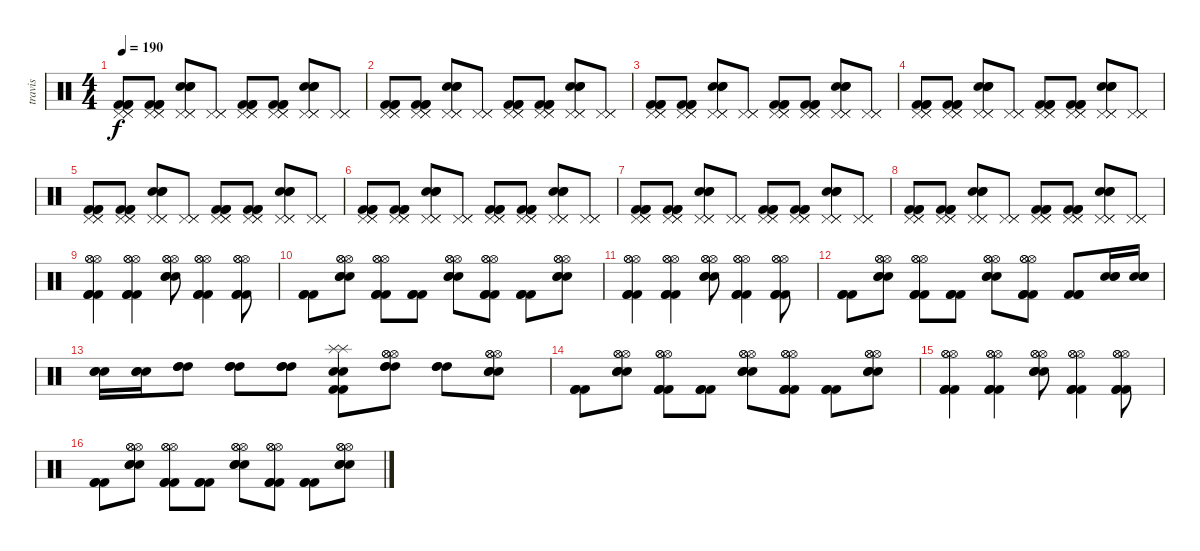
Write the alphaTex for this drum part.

\track ("travis" "travis") {instrument percussion}
\staff {score}
\articulation defaults
\ts (4 4)
\tempo 190
\clef neutral
\ks c
("Kick (hit) 2" "Kick (hit) 2" "Kick (hit) 2" "Pedal Hi-Hat (hit)" "Pedal Hi-Hat (hit)" "Pedal Hi-Hat (hit)").8{dy f} ("Kick (hit) 2" "Kick (hit) 2" "Kick (hit) 2" "Pedal Hi-Hat (hit)" "Pedal Hi-Hat (hit)" "Pedal Hi-Hat (hit)").8 ("Snare (hit) 2" "Snare (hit) 2" "Snare (hit) 2" "Pedal Hi-Hat (hit)" "Pedal Hi-Hat (hit)" "Pedal Hi-Hat (hit)").8 ("Pedal Hi-Hat (hit)" "Pedal Hi-Hat (hit)" "Pedal Hi-Hat (hit)").8 ("Kick (hit) 2" "Kick (hit) 2" "Kick (hit) 2" "Pedal Hi-Hat (hit)" "Pedal Hi-Hat (hit)" "Pedal Hi-Hat (hit)").8 ("Kick (hit) 2" "Kick (hit) 2" "Kick (hit) 2" "Pedal Hi-Hat (hit)" "Pedal Hi-Hat (hit)" "Pedal Hi-Hat (hit)").8 ("Snare (hit) 2" "Snare (hit) 2" "Snare (hit) 2" "Pedal Hi-Hat (hit)" "Pedal Hi-Hat (hit)" "Pedal Hi-Hat (hit)").8 ("Pedal Hi-Hat (hit)" "Pedal Hi-Hat (hit)" "Pedal Hi-Hat (hit)").8 |
("Kick (hit) 2" "Kick (hit) 2" "Kick (hit) 2" "Pedal Hi-Hat (hit)" "Pedal Hi-Hat (hit)" "Pedal Hi-Hat (hit)").8 ("Kick (hit) 2" "Kick (hit) 2" "Kick (hit) 2" "Pedal Hi-Hat (hit)" "Pedal Hi-Hat (hit)" "Pedal Hi-Hat (hit)").8 ("Snare (hit) 2" "Snare (hit) 2" "Snare (hit) 2" "Pedal Hi-Hat (hit)" "Pedal Hi-Hat (hit)" "Pedal Hi-Hat (hit)").8 ("Pedal Hi-Hat (hit)" "Pedal Hi-Hat (hit)" "Pedal Hi-Hat (hit)").8 ("Kick (hit) 2" "Kick (hit) 2" "Kick (hit) 2" "Pedal Hi-Hat (hit)" "Pedal Hi-Hat (hit)" "Pedal Hi-Hat (hit)").8 ("Kick (hit) 2" "Kick (hit) 2" "Kick (hit) 2" "Pedal Hi-Hat (hit)" "Pedal Hi-Hat (hit)" "Pedal Hi-Hat (hit)").8 ("Snare (hit) 2" "Snare (hit) 2" "Snare (hit) 2" "Pedal Hi-Hat (hit)" "Pedal Hi-Hat (hit)" "Pedal Hi-Hat (hit)").8 ("Pedal Hi-Hat (hit)" "Pedal Hi-Hat (hit)" "Pedal Hi-Hat (hit)").8 |
("Kick (hit) 2" "Kick (hit) 2" "Kick (hit) 2" "Pedal Hi-Hat (hit)" "Pedal Hi-Hat (hit)" "Pedal Hi-Hat (hit)").8 ("Kick (hit) 2" "Kick (hit) 2" "Kick (hit) 2" "Pedal Hi-Hat (hit)" "Pedal Hi-Hat (hit)" "Pedal Hi-Hat (hit)").8 ("Snare (hit) 2" "Snare (hit) 2" "Snare (hit) 2" "Pedal Hi-Hat (hit)" "Pedal Hi-Hat (hit)" "Pedal Hi-Hat (hit)").8 ("Pedal Hi-Hat (hit)" "Pedal Hi-Hat (hit)" "Pedal Hi-Hat (hit)").8 ("Kick (hit) 2" "Kick (hit) 2" "Kick (hit) 2" "Pedal Hi-Hat (hit)" "Pedal Hi-Hat (hit)" "Pedal Hi-Hat (hit)").8 ("Kick (hit) 2" "Kick (hit) 2" "Kick (hit) 2" "Pedal Hi-Hat (hit)" "Pedal Hi-Hat (hit)" "Pedal Hi-Hat (hit)").8 ("Snare (hit) 2" "Snare (hit) 2" "Snare (hit) 2" "Pedal Hi-Hat (hit)" "Pedal Hi-Hat (hit)" "Pedal Hi-Hat (hit)").8 ("Pedal Hi-Hat (hit)" "Pedal Hi-Hat (hit)" "Pedal Hi-Hat (hit)").8 |
("Kick (hit) 2" "Kick (hit) 2" "Kick (hit) 2" "Pedal Hi-Hat (hit)" "Pedal Hi-Hat (hit)" "Pedal Hi-Hat (hit)").8 ("Kick (hit) 2" "Kick (hit) 2" "Kick (hit) 2" "Pedal Hi-Hat (hit)" "Pedal Hi-Hat (hit)" "Pedal Hi-Hat (hit)").8 ("Snare (hit) 2" "Snare (hit) 2" "Snare (hit) 2" "Pedal Hi-Hat (hit)" "Pedal Hi-Hat (hit)" "Pedal Hi-Hat (hit)").8 ("Pedal Hi-Hat (hit)" "Pedal Hi-Hat (hit)" "Pedal Hi-Hat (hit)").8 ("Kick (hit) 2" "Kick (hit) 2" "Kick (hit) 2" "Pedal Hi-Hat (hit)" "Pedal Hi-Hat (hit)" "Pedal Hi-Hat (hit)").8 ("Kick (hit) 2" "Kick (hit) 2" "Kick (hit) 2" "Pedal Hi-Hat (hit)" "Pedal Hi-Hat (hit)" "Pedal Hi-Hat (hit)").8 ("Snare (hit) 2" "Snare (hit) 2" "Snare (hit) 2" "Pedal Hi-Hat (hit)" "Pedal Hi-Hat (hit)" "Pedal Hi-Hat (hit)").8 ("Pedal Hi-Hat (hit)" "Pedal Hi-Hat (hit)" "Pedal Hi-Hat (hit)").8 |
("Kick (hit) 2" "Kick (hit) 2" "Kick (hit) 2" "Pedal Hi-Hat (hit)" "Pedal Hi-Hat (hit)" "Pedal Hi-Hat (hit)").8 ("Kick (hit) 2" "Kick (hit) 2" "Kick (hit) 2" "Pedal Hi-Hat (hit)" "Pedal Hi-Hat (hit)" "Pedal Hi-Hat (hit)").8 ("Snare (hit) 2" "Snare (hit) 2" "Snare (hit) 2" "Pedal Hi-Hat (hit)" "Pedal Hi-Hat (hit)" "Pedal Hi-Hat (hit)").8 ("Pedal Hi-Hat (hit)" "Pedal Hi-Hat (hit)" "Pedal Hi-Hat (hit)").8 ("Kick (hit) 2" "Kick (hit) 2" "Kick (hit) 2" "Pedal Hi-Hat (hit)" "Pedal Hi-Hat (hit)" "Pedal Hi-Hat (hit)").8 ("Kick (hit) 2" "Kick (hit) 2" "Kick (hit) 2" "Pedal Hi-Hat (hit)" "Pedal Hi-Hat (hit)" "Pedal Hi-Hat (hit)").8 ("Snare (hit) 2" "Snare (hit) 2" "Snare (hit) 2" "Pedal Hi-Hat (hit)" "Pedal Hi-Hat (hit)" "Pedal Hi-Hat (hit)").8 ("Pedal Hi-Hat (hit)" "Pedal Hi-Hat (hit)" "Pedal Hi-Hat (hit)").8 |
("Kick (hit) 2" "Kick (hit) 2" "Kick (hit) 2" "Pedal Hi-Hat (hit)" "Pedal Hi-Hat (hit)" "Pedal Hi-Hat (hit)").8 ("Kick (hit) 2" "Kick (hit) 2" "Kick (hit) 2" "Pedal Hi-Hat (hit)" "Pedal Hi-Hat (hit)" "Pedal Hi-Hat (hit)").8 ("Snare (hit) 2" "Snare (hit) 2" "Snare (hit) 2" "Pedal Hi-Hat (hit)" "Pedal Hi-Hat (hit)" "Pedal Hi-Hat (hit)").8 ("Pedal Hi-Hat (hit)" "Pedal Hi-Hat (hit)" "Pedal Hi-Hat (hit)").8 ("Kick (hit) 2" "Kick (hit) 2" "Kick (hit) 2" "Pedal Hi-Hat (hit)" "Pedal Hi-Hat (hit)" "Pedal Hi-Hat (hit)").8 ("Kick (hit) 2" "Kick (hit) 2" "Kick (hit) 2" "Pedal Hi-Hat (hit)" "Pedal Hi-Hat (hit)" "Pedal Hi-Hat (hit)").8 ("Snare (hit) 2" "Snare (hit) 2" "Snare (hit) 2" "Pedal Hi-Hat (hit)" "Pedal Hi-Hat (hit)" "Pedal Hi-Hat (hit)").8 ("Pedal Hi-Hat (hit)" "Pedal Hi-Hat (hit)" "Pedal Hi-Hat (hit)").8 |
("Kick (hit) 2" "Kick (hit) 2" "Kick (hit) 2" "Pedal Hi-Hat (hit)" "Pedal Hi-Hat (hit)" "Pedal Hi-Hat (hit)").8 ("Kick (hit) 2" "Kick (hit) 2" "Kick (hit) 2" "Pedal Hi-Hat (hit)" "Pedal Hi-Hat (hit)" "Pedal Hi-Hat (hit)").8 ("Snare (hit) 2" "Snare (hit) 2" "Snare (hit) 2" "Pedal Hi-Hat (hit)" "Pedal Hi-Hat (hit)" "Pedal Hi-Hat (hit)").8 ("Pedal Hi-Hat (hit)" "Pedal Hi-Hat (hit)" "Pedal Hi-Hat (hit)").8 ("Kick (hit) 2" "Kick (hit) 2" "Kick (hit) 2" "Pedal Hi-Hat (hit)" "Pedal Hi-Hat (hit)" "Pedal Hi-Hat (hit)").8 ("Kick (hit) 2" "Kick (hit) 2" "Kick (hit) 2" "Pedal Hi-Hat (hit)" "Pedal Hi-Hat (hit)" "Pedal Hi-Hat (hit)").8 ("Snare (hit) 2" "Snare (hit) 2" "Snare (hit) 2" "Pedal Hi-Hat (hit)" "Pedal Hi-Hat (hit)" "Pedal Hi-Hat (hit)").8 ("Pedal Hi-Hat (hit)" "Pedal Hi-Hat (hit)" "Pedal Hi-Hat (hit)").8 |
("Kick (hit) 2" "Kick (hit) 2" "Kick (hit) 2" "Pedal Hi-Hat (hit)" "Pedal Hi-Hat (hit)" "Pedal Hi-Hat (hit)").8 ("Kick (hit) 2" "Kick (hit) 2" "Kick (hit) 2" "Pedal Hi-Hat (hit)" "Pedal Hi-Hat (hit)" "Pedal Hi-Hat (hit)").8 ("Snare (hit) 2" "Snare (hit) 2" "Snare (hit) 2" "Pedal Hi-Hat (hit)" "Pedal Hi-Hat (hit)" "Pedal Hi-Hat (hit)").8 ("Pedal Hi-Hat (hit)" "Pedal Hi-Hat (hit)" "Pedal Hi-Hat (hit)").8 ("Kick (hit) 2" "Kick (hit) 2" "Kick (hit) 2" "Pedal Hi-Hat (hit)" "Pedal Hi-Hat (hit)" "Pedal Hi-Hat (hit)").8 ("Kick (hit) 2" "Kick (hit) 2" "Kick (hit) 2" "Pedal Hi-Hat (hit)" "Pedal Hi-Hat (hit)" "Pedal Hi-Hat (hit)").8 ("Snare (hit) 2" "Snare (hit) 2" "Snare (hit) 2" "Pedal Hi-Hat (hit)" "Pedal Hi-Hat (hit)" "Pedal Hi-Hat (hit)").8 ("Pedal Hi-Hat (hit)" "Pedal Hi-Hat (hit)" "Pedal Hi-Hat (hit)").8 |
("Kick (hit) 2" "Kick (hit) 2" "Kick (hit) 2" "Hi-Hat (open)" "Hi-Hat (open)" "Hi-Hat (open)").4 ("Kick (hit) 2" "Kick (hit) 2" "Kick (hit) 2" "Hi-Hat (open)" "Hi-Hat (open)" "Hi-Hat (open)").4 ("Snare (hit) 2" "Snare (hit) 2" "Snare (hit) 2" "Hi-Hat (open)" "Hi-Hat (open)" "Hi-Hat (open)").8 ("Kick (hit) 2" "Kick (hit) 2" "Kick (hit) 2" "Hi-Hat (open)" "Hi-Hat (open)" "Hi-Hat (open)").4 ("Kick (hit) 2" "Kick (hit) 2" "Kick (hit) 2" "Hi-Hat (open)" "Hi-Hat (open)" "Hi-Hat (open)").8 |
("Kick (hit) 2" "Kick (hit) 2" "Kick (hit) 2").8 ("Snare (hit) 2" "Snare (hit) 2" "Snare (hit) 2" "Hi-Hat (open)" "Hi-Hat (open)" "Hi-Hat (open)").8 ("Kick (hit) 2" "Kick (hit) 2" "Kick (hit) 2" "Hi-Hat (open)" "Hi-Hat (open)" "Hi-Hat (open)").8 ("Kick (hit) 2" "Kick (hit) 2" "Kick (hit) 2").8 ("Snare (hit) 2" "Snare (hit) 2" "Snare (hit) 2" "Hi-Hat (open)" "Hi-Hat (open)" "Hi-Hat (open)").8 ("Kick (hit) 2" "Kick (hit) 2" "Kick (hit) 2" "Hi-Hat (open)" "Hi-Hat (open)" "Hi-Hat (open)").8 ("Kick (hit) 2" "Kick (hit) 2" "Kick (hit) 2").8 ("Snare (hit) 2" "Snare (hit) 2" "Snare (hit) 2" "Hi-Hat (open)" "Hi-Hat (open)" "Hi-Hat (open)").8 |
("Kick (hit) 2" "Kick (hit) 2" "Kick (hit) 2" "Hi-Hat (open)" "Hi-Hat (open)" "Hi-Hat (open)").4 ("Kick (hit) 2" "Kick (hit) 2" "Kick (hit) 2" "Hi-Hat (open)" "Hi-Hat (open)" "Hi-Hat (open)").4 ("Snare (hit) 2" "Snare (hit) 2" "Snare (hit) 2" "Hi-Hat (open)" "Hi-Hat (open)" "Hi-Hat (open)").8 ("Kick (hit) 2" "Kick (hit) 2" "Kick (hit) 2" "Hi-Hat (open)" "Hi-Hat (open)" "Hi-Hat (open)").4 ("Kick (hit) 2" "Kick (hit) 2" "Kick (hit) 2" "Hi-Hat (open)" "Hi-Hat (open)" "Hi-Hat (open)").8 |
("Kick (hit) 2" "Kick (hit) 2" "Kick (hit) 2").8 ("Snare (hit) 2" "Snare (hit) 2" "Snare (hit) 2" "Hi-Hat (open)" "Hi-Hat (open)" "Hi-Hat (open)").8 ("Kick (hit) 2" "Kick (hit) 2" "Kick (hit) 2" "Hi-Hat (open)" "Hi-Hat (open)" "Hi-Hat (open)").8 ("Kick (hit) 2" "Kick (hit) 2" "Kick (hit) 2").8 ("Snare (hit) 2" "Snare (hit) 2" "Snare (hit) 2" "Hi-Hat (open)" "Hi-Hat (open)" "Hi-Hat (open)").8 ("Kick (hit) 2" "Kick (hit) 2" "Kick (hit) 2" "Hi-Hat (open)" "Hi-Hat (open)" "Hi-Hat (open)").8 ("Kick (hit) 2" "Kick (hit) 2" "Kick (hit) 2").8 ("Snare (hit) 2" "Snare (hit) 2" "Snare (hit) 2").16 ("Snare (hit) 2" "Snare (hit) 2" "Snare (hit) 2").16 |
("Snare (hit) 2" "Snare (hit) 2" "Snare (hit) 2").16 ("Snare (hit) 2" "Snare (hit) 2" "Snare (hit) 2").16 ("High Tom (hit)" "High Tom (hit)" "High Tom (hit)").8 ("High Tom (hit)" "High Tom (hit)" "High Tom (hit)").8 ("High Tom (hit)" "High Tom (hit)" "High Tom (hit)").8 ("Snare (hit) 2" "Snare (hit) 2" "Kick (hit) 2" "Kick (hit) 2" "Splash (hit)" "Splash (hit)").8 ("High Tom (hit)" "High Tom (hit)" "High Tom (hit)" "Hi-Hat (open)" "Hi-Hat (open)" "Hi-Hat (open)").8 ("High Tom (hit)" "High Tom (hit)" "High Tom (hit)").8 ("Snare (hit) 2" "Snare (hit) 2" "Snare (hit) 2" "Hi-Hat (open)" "Hi-Hat (open)" "Hi-Hat (open)").8 |
("Kick (hit) 2" "Kick (hit) 2" "Kick (hit) 2").8 ("Snare (hit) 2" "Snare (hit) 2" "Snare (hit) 2" "Hi-Hat (open)" "Hi-Hat (open)" "Hi-Hat (open)").8 ("Kick (hit) 2" "Kick (hit) 2" "Kick (hit) 2" "Hi-Hat (open)" "Hi-Hat (open)" "Hi-Hat (open)").8 ("Kick (hit) 2" "Kick (hit) 2" "Kick (hit) 2").8 ("Snare (hit) 2" "Snare (hit) 2" "Snare (hit) 2" "Hi-Hat (open)" "Hi-Hat (open)" "Hi-Hat (open)").8 ("Kick (hit) 2" "Kick (hit) 2" "Kick (hit) 2" "Hi-Hat (open)" "Hi-Hat (open)" "Hi-Hat (open)").8 ("Kick (hit) 2" "Kick (hit) 2" "Kick (hit) 2").8 ("Snare (hit) 2" "Snare (hit) 2" "Snare (hit) 2" "Hi-Hat (open)" "Hi-Hat (open)" "Hi-Hat (open)").8 |
("Kick (hit) 2" "Kick (hit) 2" "Kick (hit) 2" "Hi-Hat (open)" "Hi-Hat (open)" "Hi-Hat (open)").4 ("Kick (hit) 2" "Kick (hit) 2" "Kick (hit) 2" "Hi-Hat (open)" "Hi-Hat (open)" "Hi-Hat (open)").4 ("Snare (hit) 2" "Snare (hit) 2" "Snare (hit) 2" "Hi-Hat (open)" "Hi-Hat (open)" "Hi-Hat (open)").8 ("Kick (hit) 2" "Kick (hit) 2" "Kick (hit) 2" "Hi-Hat (open)" "Hi-Hat (open)" "Hi-Hat (open)").4 ("Kick (hit) 2" "Kick (hit) 2" "Kick (hit) 2" "Hi-Hat (open)" "Hi-Hat (open)" "Hi-Hat (open)").8 |
("Kick (hit) 2" "Kick (hit) 2" "Kick (hit) 2").8 ("Snare (hit) 2" "Snare (hit) 2" "Snare (hit) 2" "Hi-Hat (open)" "Hi-Hat (open)" "Hi-Hat (open)").8 ("Kick (hit) 2" "Kick (hit) 2" "Kick (hit) 2" "Hi-Hat (open)" "Hi-Hat (open)" "Hi-Hat (open)").8 ("Kick (hit) 2" "Kick (hit) 2" "Kick (hit) 2").8 ("Snare (hit) 2" "Snare (hit) 2" "Snare (hit) 2" "Hi-Hat (open)" "Hi-Hat (open)" "Hi-Hat (open)").8 ("Kick (hit) 2" "Kick (hit) 2" "Kick (hit) 2" "Hi-Hat (open)" "Hi-Hat (open)" "Hi-Hat (open)").8 ("Kick (hit) 2" "Kick (hit) 2" "Kick (hit) 2").8 ("Snare (hit) 2" "Snare (hit) 2" "Snare (hit) 2" "Hi-Hat (open)" "Hi-Hat (open)" "Hi-Hat (open)").8
